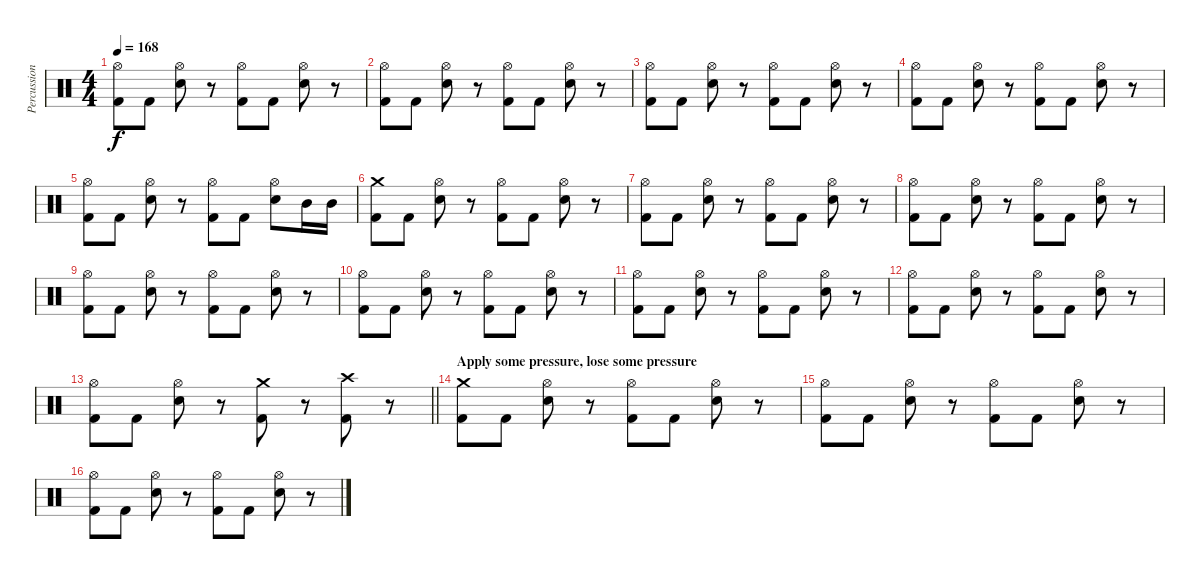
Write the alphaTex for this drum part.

\track ("Percussion" "Percussion") {instrument percussion}
\staff {score}
\articulation defaults
\ts (4 4)
\tempo 168
\clef neutral
\ks c
("Hi-Hat (open)" "Kick (hit) 2").8{dy f} "Kick (hit) 2".8 ("Hi-Hat (open)" "Snare (hit) 2").8 r.8 ("Hi-Hat (open)" "Kick (hit) 2").8 "Kick (hit) 2".8 ("Hi-Hat (open)" "Snare (hit) 2").8 r.8 |
("Hi-Hat (open)" "Kick (hit) 2").8 "Kick (hit) 2".8 ("Hi-Hat (open)" "Snare (hit) 2").8 r.8 ("Hi-Hat (open)" "Kick (hit) 2").8 "Kick (hit) 2".8 ("Hi-Hat (open)" "Snare (hit) 2").8 r.8 |
("Hi-Hat (open)" "Kick (hit) 2").8 "Kick (hit) 2".8 ("Hi-Hat (open)" "Snare (hit) 2").8 r.8 ("Hi-Hat (open)" "Kick (hit) 2").8 "Kick (hit) 2".8 ("Hi-Hat (open)" "Snare (hit) 2").8 r.8 |
("Hi-Hat (open)" "Kick (hit) 2").8 "Kick (hit) 2".8 ("Hi-Hat (open)" "Snare (hit) 2").8 r.8 ("Hi-Hat (open)" "Kick (hit) 2").8 "Kick (hit) 2".8 ("Hi-Hat (open)" "Snare (hit) 2").8 r.8 |
("Hi-Hat (open)" "Kick (hit) 2").8 "Kick (hit) 2".8 ("Hi-Hat (open)" "Snare (hit) 2").8 r.8 ("Hi-Hat (open)" "Kick (hit) 2").8 "Kick (hit) 2".8 ("Hi-Hat (open)" "Snare (hit) 2").8 "Mid Tom (hit)".16 "Mid Tom (hit)".16 |
("Crash medium (hit)" "Kick (hit) 2").8 "Kick (hit) 2".8 ("Hi-Hat (open)" "Snare (hit) 2").8 r.8 ("Hi-Hat (open)" "Kick (hit) 2").8 "Kick (hit) 2".8 ("Hi-Hat (open)" "Snare (hit) 2").8 r.8 |
("Hi-Hat (open)" "Kick (hit) 2").8 "Kick (hit) 2".8 ("Hi-Hat (open)" "Snare (hit) 2").8 r.8 ("Hi-Hat (open)" "Kick (hit) 2").8 "Kick (hit) 2".8 ("Hi-Hat (open)" "Snare (hit) 2").8 r.8 |
("Hi-Hat (open)" "Kick (hit) 2").8 "Kick (hit) 2".8 ("Hi-Hat (open)" "Snare (hit) 2").8 r.8 ("Hi-Hat (open)" "Kick (hit) 2").8 "Kick (hit) 2".8 ("Hi-Hat (open)" "Snare (hit) 2").8 r.8 |
("Hi-Hat (open)" "Kick (hit) 2").8 "Kick (hit) 2".8 ("Hi-Hat (open)" "Snare (hit) 2").8 r.8 ("Hi-Hat (open)" "Kick (hit) 2").8 "Kick (hit) 2".8 ("Hi-Hat (open)" "Snare (hit) 2").8 r.8 |
("Hi-Hat (open)" "Kick (hit) 2").8 "Kick (hit) 2".8 ("Hi-Hat (open)" "Snare (hit) 2").8 r.8 ("Hi-Hat (open)" "Kick (hit) 2").8 "Kick (hit) 2".8 ("Hi-Hat (open)" "Snare (hit) 2").8 r.8 |
("Hi-Hat (open)" "Kick (hit) 2").8 "Kick (hit) 2".8 ("Hi-Hat (open)" "Snare (hit) 2").8 r.8 ("Hi-Hat (open)" "Kick (hit) 2").8 "Kick (hit) 2".8 ("Hi-Hat (open)" "Snare (hit) 2").8 r.8 |
("Hi-Hat (open)" "Kick (hit) 2").8 "Kick (hit) 2".8 ("Hi-Hat (open)" "Snare (hit) 2").8 r.8 ("Hi-Hat (open)" "Kick (hit) 2").8 "Kick (hit) 2".8 ("Hi-Hat (open)" "Snare (hit) 2").8 r.8 |
\barLineRight lightlight
("Hi-Hat (open)" "Kick (hit) 2").8 "Kick (hit) 2".8 ("Hi-Hat (open)" "Snare (hit) 2").8 r.8 ("Crash medium (hit)" "Kick (hit) 2").8 r.8 ("Crash high (hit)" "Kick (hit) 2").8 r.8 |
\section ("" "Apply some pressure, lose some pressure")
("Crash medium (hit)" "Kick (hit) 2").8 "Kick (hit) 2".8 ("Hi-Hat (open)" "Snare (hit) 2").8 r.8 ("Hi-Hat (open)" "Kick (hit) 2").8 "Kick (hit) 2".8 ("Hi-Hat (open)" "Snare (hit) 2").8 r.8 |
("Hi-Hat (open)" "Kick (hit) 2").8 "Kick (hit) 2".8 ("Hi-Hat (open)" "Snare (hit) 2").8 r.8 ("Hi-Hat (open)" "Kick (hit) 2").8 "Kick (hit) 2".8 ("Hi-Hat (open)" "Snare (hit) 2").8 r.8 |
("Hi-Hat (open)" "Kick (hit) 2").8 "Kick (hit) 2".8 ("Hi-Hat (open)" "Snare (hit) 2").8 r.8 ("Hi-Hat (open)" "Kick (hit) 2").8 "Kick (hit) 2".8 ("Hi-Hat (open)" "Snare (hit) 2").8 r.8
